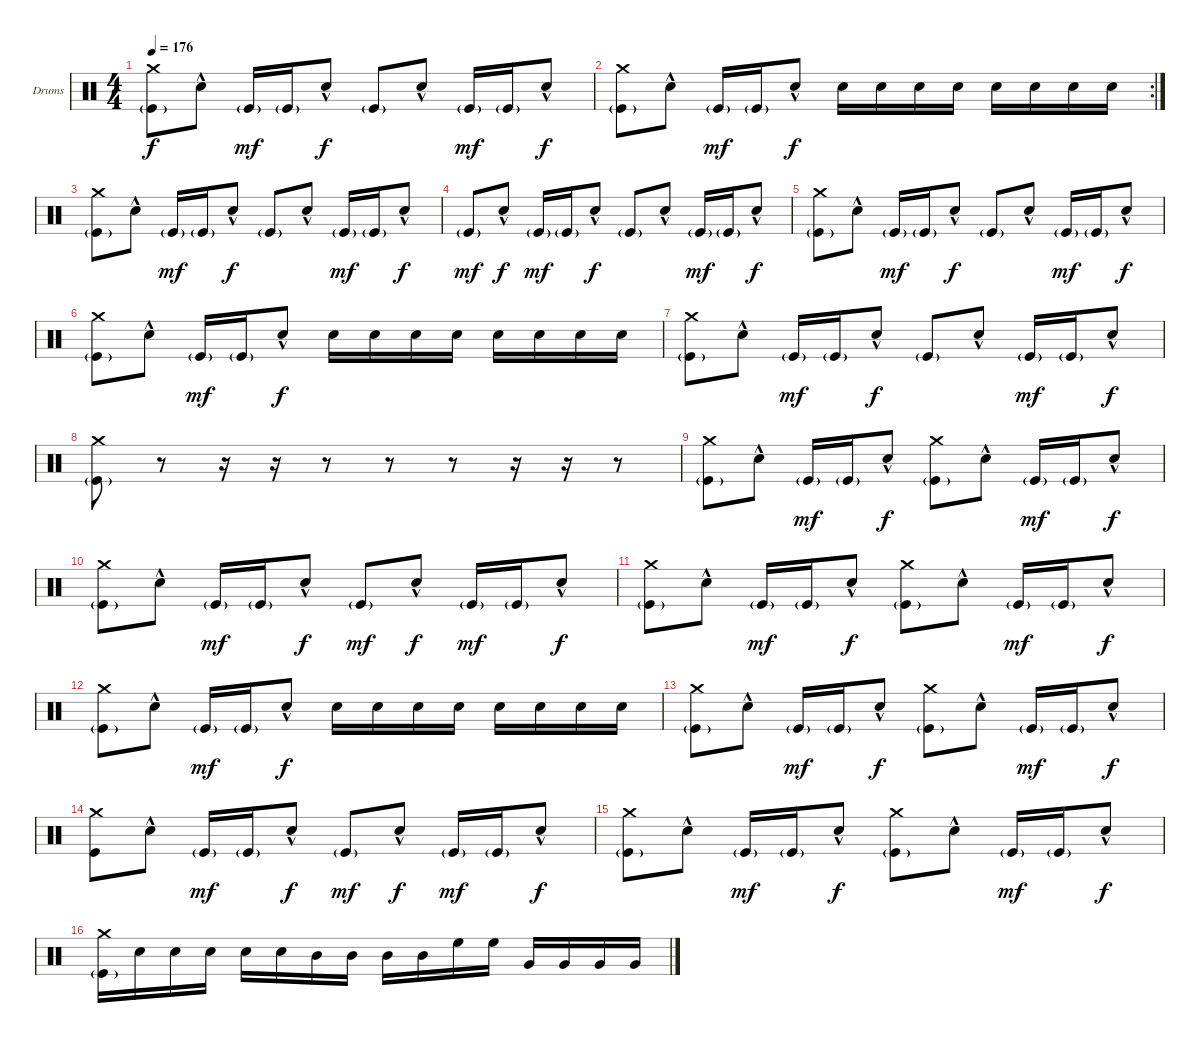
\defaultSystemsLayout 4
\bracketExtendMode groupsimilarinstruments
\firstSystemTrackNameOrientation horizontal
\otherSystemsTrackNameOrientation horizontal
\track ("Drums" "Drums") {instrument percussion}
\staff {score}
\articulation defaults
\ts (4 4)
\tempo 176
\clef neutral
\ks c
("Crash medium (hit)" "Kick (hit)"{g}).8{dy f} "Snare (hit) 2"{hac}.8 "Kick (hit)"{g}.16{dy mf} "Kick (hit)"{g}.16 "Snare (hit) 2"{hac}.8{dy f} "Kick (hit)"{g}.8 "Snare (hit) 2"{hac}.8 "Kick (hit)"{g}.16{dy mf} "Kick (hit)"{g}.16 "Snare (hit) 2"{hac}.8{dy f} |
\rc 2
("Crash medium (hit)" "Kick (hit)"{g}).8 "Snare (hit) 2"{hac}.8 "Kick (hit)"{g}.16{dy mf} "Kick (hit)"{g}.16 "Snare (hit) 2"{hac}.8{dy f} "Snare (hit) 2".16 "Snare (hit) 2".16 "Snare (hit) 2".16 "Snare (hit) 2".16 "Snare (hit) 2".16 "Snare (hit) 2".16 "Snare (hit) 2".16 "Snare (hit) 2".16 |
("Crash medium (hit)" "Kick (hit)"{g}).8 "Snare (hit) 2"{hac}.8 "Kick (hit)"{g}.16{dy mf} "Kick (hit)"{g}.16 "Snare (hit) 2"{hac}.8{dy f} "Kick (hit)"{g}.8 "Snare (hit) 2"{hac}.8 "Kick (hit)"{g}.16{dy mf} "Kick (hit)"{g}.16 "Snare (hit) 2"{hac}.8{dy f} |
"Kick (hit)"{g}.8{dy mf} "Snare (hit) 2"{hac}.8{dy f} "Kick (hit)"{g}.16{dy mf} "Kick (hit)"{g}.16 "Snare (hit) 2"{hac}.8{dy f} "Kick (hit)"{g}.8 "Snare (hit) 2"{hac}.8 "Kick (hit)"{g}.16{dy mf} "Kick (hit)"{g}.16 "Snare (hit) 2"{hac}.8{dy f} |
("Crash medium (hit)" "Kick (hit)"{g}).8 "Snare (hit) 2"{hac}.8 "Kick (hit)"{g}.16{dy mf} "Kick (hit)"{g}.16 "Snare (hit) 2"{hac}.8{dy f} "Kick (hit)"{g}.8 "Snare (hit) 2"{hac}.8 "Kick (hit)"{g}.16{dy mf} "Kick (hit)"{g}.16 "Snare (hit) 2"{hac}.8{dy f} |
("Crash medium (hit)" "Kick (hit)"{g}).8 "Snare (hit) 2"{hac}.8 "Kick (hit)"{g}.16{dy mf} "Kick (hit)"{g}.16 "Snare (hit) 2"{hac}.8{dy f} "Snare (hit) 2".16 "Snare (hit) 2".16 "Snare (hit) 2".16 "Snare (hit) 2".16 "Snare (hit) 2".16 "Snare (hit) 2".16 "Snare (hit) 2".16 "Snare (hit) 2".16 |
("Crash medium (hit)" "Kick (hit)"{g}).8 "Snare (hit) 2"{hac}.8 "Kick (hit)"{g}.16{dy mf} "Kick (hit)"{g}.16 "Snare (hit) 2"{hac}.8{dy f} "Kick (hit)"{g}.8 "Snare (hit) 2"{hac}.8 "Kick (hit)"{g}.16{dy mf} "Kick (hit)"{g}.16 "Snare (hit) 2"{hac}.8{dy f} |
("Crash medium (hit)" "Kick (hit)"{g}).8 r.8 r.16 r.16 r.8 r.8 r.8 r.16 r.16 r.8 |
("Crash medium (hit)" "Kick (hit)"{g}).8 "Snare (hit) 2"{hac}.8 "Kick (hit)"{g}.16{dy mf} "Kick (hit)"{g}.16 "Snare (hit) 2"{hac}.8{dy f} ("Crash medium (hit)" "Kick (hit)"{g}).8 "Snare (hit) 2"{hac}.8 "Kick (hit)"{g}.16{dy mf} "Kick (hit)"{g}.16 "Snare (hit) 2"{hac}.8{dy f} |
("Crash medium (hit)" "Kick (hit)"{g}).8 "Snare (hit) 2"{hac}.8 "Kick (hit)"{g}.16{dy mf} "Kick (hit)"{g}.16 "Snare (hit) 2"{hac}.8{dy f} "Kick (hit)"{g}.8{dy mf} "Snare (hit) 2"{hac}.8{dy f} "Kick (hit)"{g}.16{dy mf} "Kick (hit)"{g}.16 "Snare (hit) 2"{hac}.8{dy f} |
("Crash medium (hit)" "Kick (hit)"{g}).8 "Snare (hit) 2"{hac}.8 "Kick (hit)"{g}.16{dy mf} "Kick (hit)"{g}.16 "Snare (hit) 2"{hac}.8{dy f} ("Crash medium (hit)" "Kick (hit)"{g}).8 "Snare (hit) 2"{hac}.8 "Kick (hit)"{g}.16{dy mf} "Kick (hit)"{g}.16 "Snare (hit) 2"{hac}.8{dy f} |
("Crash medium (hit)" "Kick (hit)"{g}).8 "Snare (hit) 2"{hac}.8 "Kick (hit)"{g}.16{dy mf} "Kick (hit)"{g}.16 "Snare (hit) 2"{hac}.8{dy f} "Snare (hit) 2".16 "Snare (hit) 2".16 "Snare (hit) 2".16 "Snare (hit) 2".16 "Snare (hit) 2".16 "Snare (hit) 2".16 "Snare (hit) 2".16 "Snare (hit) 2".16 |
("Crash medium (hit)" "Kick (hit)"{g}).8 "Snare (hit) 2"{hac}.8 "Kick (hit)"{g}.16{dy mf} "Kick (hit)"{g}.16 "Snare (hit) 2"{hac}.8{dy f} ("Crash medium (hit)" "Kick (hit)"{g}).8 "Snare (hit) 2"{hac}.8 "Kick (hit)"{g}.16{dy mf} "Kick (hit)"{g}.16 "Snare (hit) 2"{hac}.8{dy f} |
("Crash medium (hit)" "Kick (hit)").8 "Snare (hit) 2"{hac}.8 "Kick (hit)"{g}.16{dy mf} "Kick (hit)"{g}.16 "Snare (hit) 2"{hac}.8{dy f} "Kick (hit)"{g}.8{dy mf} "Snare (hit) 2"{hac}.8{dy f} "Kick (hit)"{g}.16{dy mf} "Kick (hit)"{g}.16 "Snare (hit) 2"{hac}.8{dy f} |
("Crash medium (hit)" "Kick (hit)"{g}).8 "Snare (hit) 2"{hac}.8 "Kick (hit)"{g}.16{dy mf} "Kick (hit)"{g}.16 "Snare (hit) 2"{hac}.8{dy f} ("Crash medium (hit)" "Kick (hit)"{g}).8 "Snare (hit) 2"{hac}.8 "Kick (hit)"{g}.16{dy mf} "Kick (hit)"{g}.16 "Snare (hit) 2"{hac}.8{dy f} |
("Crash medium (hit)" "Kick (hit)"{g}).16 "Snare (hit) 2".16 "Snare (hit) 2".16 "Snare (hit) 2".16 "Snare (hit) 2".16 "Snare (hit) 2".16 "Mid Tom (hit)".16 "Mid Tom (hit)".16 "Mid Tom (hit)".16 "Mid Tom (hit)".16 "High Floor Tom (hit)".16 "High Floor Tom (hit)".16 "Very Low Tom (hit)".16 "Very Low Tom (hit)".16 "Very Low Tom (hit)".16 "Very Low Tom (hit)".16
